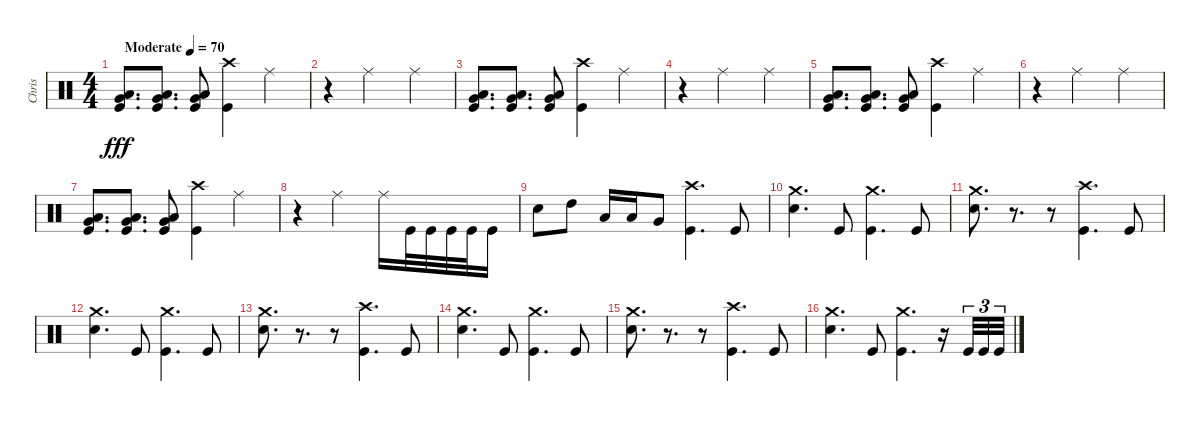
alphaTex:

\track ("Chris" "Chris") {instrument percussion}
\staff {score}
\articulation defaults
\ts (4 4)
\tempo (70 "Moderate")
\clef neutral
\ks c
("Low Floor Tom (hit)" "Very Low Tom (hit)" "Kick (hit)").8{d dy fff} ("Low Floor Tom (hit)" "Very Low Tom (hit)" "Kick (hit)").8{d} ("Low Floor Tom (hit)" "Very Low Tom (hit)" "Kick (hit)").8 ("Crash high (hit)" "Kick (hit)").4 "Ride (middle)".4 |
r.4 "Ride (middle)".2 "Ride (middle)".4 |
("Low Floor Tom (hit)" "Very Low Tom (hit)" "Kick (hit)").8{d} ("Low Floor Tom (hit)" "Very Low Tom (hit)" "Kick (hit)").8{d} ("Low Floor Tom (hit)" "Very Low Tom (hit)" "Kick (hit)").8 ("Crash high (hit)" "Kick (hit)").4 "Ride (middle)".4 |
r.4 "Ride (middle)".2 "Ride (middle)".4 |
("Low Floor Tom (hit)" "Very Low Tom (hit)" "Kick (hit)").8{d} ("Low Floor Tom (hit)" "Very Low Tom (hit)" "Kick (hit)").8{d} ("Low Floor Tom (hit)" "Very Low Tom (hit)" "Kick (hit)").8 ("Crash high (hit)" "Kick (hit)").4 "Ride (middle)".4 |
r.4 "Ride (middle)".2 "Ride (middle)".4 |
("Low Floor Tom (hit)" "Very Low Tom (hit)" "Kick (hit)").8{d} ("Low Floor Tom (hit)" "Very Low Tom (hit)" "Kick (hit)").8{d} ("Low Floor Tom (hit)" "Very Low Tom (hit)" "Kick (hit)").8 ("Crash high (hit)" "Kick (hit)").4 "Ride (middle)".4 |
r.4 "Ride (middle)".2 "Ride (middle)".16 "Kick (hit)".32 "Kick (hit)".32 "Kick (hit)".32 "Kick (hit)".32 "Kick (hit)".16 |
"Snare (hit) 2".8 "High Tom (hit)".8 "Low Tom (hit)".16 "Low Tom (hit)".16 "Very Low Tom (hit)".8 ("Crash high (hit)" "Kick (hit)").4{d} "Kick (hit)".8 |
("Crash medium (hit)" "Snare (hit) 2").4{d} "Kick (hit)".8 ("Crash medium (hit)" "Kick (hit)").4{d} "Kick (hit)".8 |
("Crash medium (hit)" "Snare (hit) 2").8{d} r.8{d} r.8 ("Crash high (hit)" "Kick (hit)").4{d} "Kick (hit)".8 |
("Crash medium (hit)" "Snare (hit) 2").4{d} "Kick (hit)".8 ("Crash medium (hit)" "Kick (hit)").4{d} "Kick (hit)".8 |
("Crash medium (hit)" "Snare (hit) 2").8{d} r.8{d} r.8 ("Crash high (hit)" "Kick (hit)").4{d} "Kick (hit)".8 |
("Crash medium (hit)" "Snare (hit) 2").4{d} "Kick (hit)".8 ("Crash medium (hit)" "Kick (hit)").4{d} "Kick (hit)".8 |
("Crash medium (hit)" "Snare (hit) 2").8{d} r.8{d} r.8 ("Crash high (hit)" "Kick (hit)").4{d} "Kick (hit)".8 |
("Crash medium (hit)" "Snare (hit) 2").4{d} "Kick (hit)".8 ("Crash medium (hit)" "Kick (hit)").4{d} r.16 "Kick (hit)".32{tu (3 2)} "Kick (hit)".32{tu (3 2)} "Kick (hit)".32{tu (3 2)}
